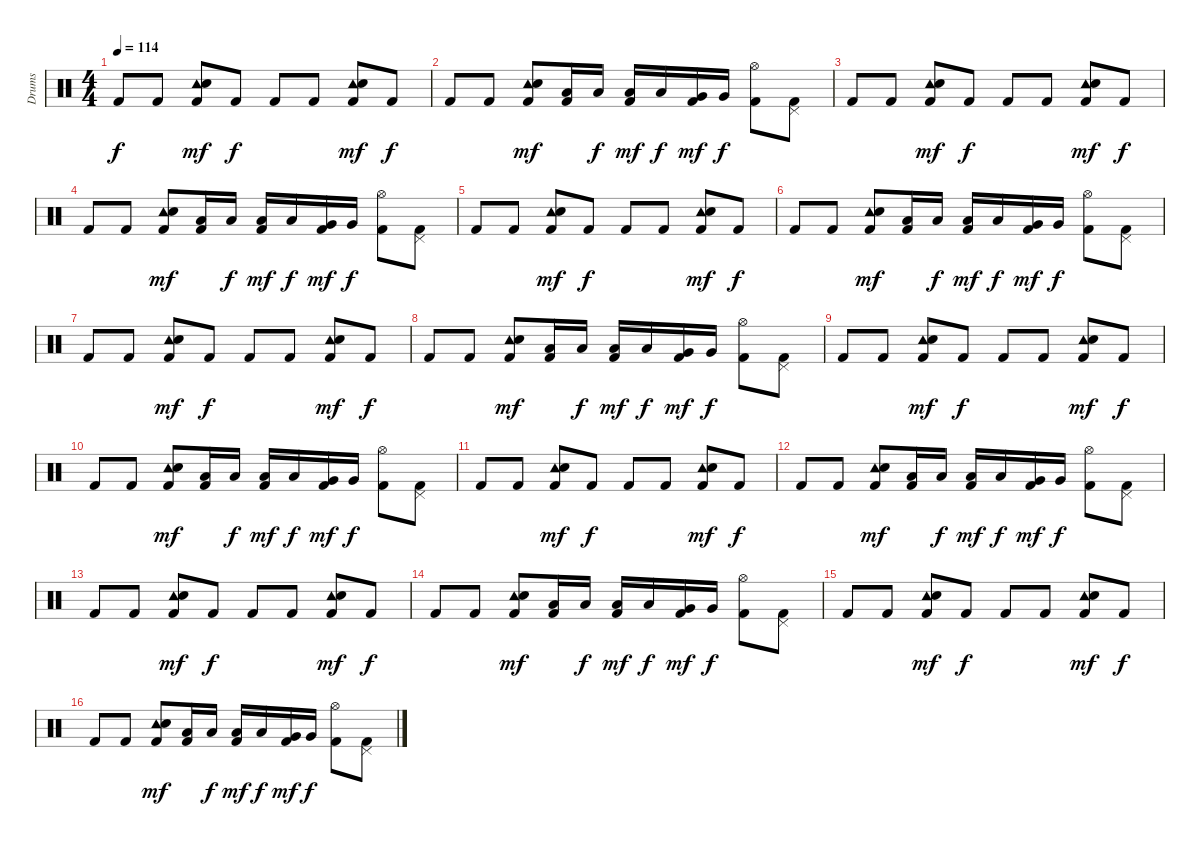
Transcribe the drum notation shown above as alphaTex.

\track ("Drums" "Drums") {instrument percussion}
\staff {score}
\articulation defaults
\ts (4 4)
\tempo 114
\clef neutral
\ks c "Kick (hit) 2".8{dy f} "Kick (hit) 2".8
("Tambourine (hit)" "Electric Snare (hit)" "Kick (hit) 2").8{dy mf} "Kick (hit) 2".8{dy f} "Kick (hit) 2".8 "Kick (hit) 2".8 ("Tambourine (hit)" "Electric Snare (hit)" "Kick (hit) 2").8{dy mf} "Kick (hit) 2".8{dy f} |
"Kick (hit) 2".8 "Kick (hit) 2".8 ("Tambourine (hit)" "Electric Snare (hit)" "Kick (hit) 2").8{dy mf} ("Low Tom (hit)" "Kick (hit) 2").16 "Low Tom (hit)".16{dy f} ("Low Tom (hit)" "Kick (hit) 2").16{dy mf} "Low Tom (hit)".16{dy f} ("Very Low Tom (hit)" "Kick (hit) 2").16{dy mf} "Very Low Tom (hit)".16{dy f} ("Hi-Hat (open)" "Kick (hit) 2").8 ("Pedal Hi-Hat (hit)" "Kick (hit) 2").8 |
"Kick (hit) 2".8 "Kick (hit) 2".8 ("Tambourine (hit)" "Electric Snare (hit)" "Kick (hit) 2").8{dy mf} "Kick (hit) 2".8{dy f} "Kick (hit) 2".8 "Kick (hit) 2".8 ("Tambourine (hit)" "Electric Snare (hit)" "Kick (hit) 2").8{dy mf} "Kick (hit) 2".8{dy f} |
"Kick (hit) 2".8 "Kick (hit) 2".8 ("Tambourine (hit)" "Electric Snare (hit)" "Kick (hit) 2").8{dy mf} ("Low Tom (hit)" "Kick (hit) 2").16 "Low Tom (hit)".16{dy f} ("Low Tom (hit)" "Kick (hit) 2").16{dy mf} "Low Tom (hit)".16{dy f} ("Very Low Tom (hit)" "Kick (hit) 2").16{dy mf} "Very Low Tom (hit)".16{dy f} ("Hi-Hat (open)" "Kick (hit) 2").8 ("Pedal Hi-Hat (hit)" "Kick (hit) 2").8 |
"Kick (hit) 2".8 "Kick (hit) 2".8 ("Tambourine (hit)" "Electric Snare (hit)" "Kick (hit) 2").8{dy mf} "Kick (hit) 2".8{dy f} "Kick (hit) 2".8 "Kick (hit) 2".8 ("Tambourine (hit)" "Electric Snare (hit)" "Kick (hit) 2").8{dy mf} "Kick (hit) 2".8{dy f} |
"Kick (hit) 2".8 "Kick (hit) 2".8 ("Tambourine (hit)" "Electric Snare (hit)" "Kick (hit) 2").8{dy mf} ("Low Tom (hit)" "Kick (hit) 2").16 "Low Tom (hit)".16{dy f} ("Low Tom (hit)" "Kick (hit) 2").16{dy mf} "Low Tom (hit)".16{dy f} ("Very Low Tom (hit)" "Kick (hit) 2").16{dy mf} "Very Low Tom (hit)".16{dy f} ("Hi-Hat (open)" "Kick (hit) 2").8 ("Pedal Hi-Hat (hit)" "Kick (hit) 2").8 |
"Kick (hit) 2".8 "Kick (hit) 2".8 ("Tambourine (hit)" "Electric Snare (hit)" "Kick (hit) 2").8{dy mf} "Kick (hit) 2".8{dy f} "Kick (hit) 2".8 "Kick (hit) 2".8 ("Tambourine (hit)" "Electric Snare (hit)" "Kick (hit) 2").8{dy mf} "Kick (hit) 2".8{dy f} |
"Kick (hit) 2".8 "Kick (hit) 2".8 ("Tambourine (hit)" "Electric Snare (hit)" "Kick (hit) 2").8{dy mf} ("Low Tom (hit)" "Kick (hit) 2").16 "Low Tom (hit)".16{dy f} ("Low Tom (hit)" "Kick (hit) 2").16{dy mf} "Low Tom (hit)".16{dy f} ("Very Low Tom (hit)" "Kick (hit) 2").16{dy mf} "Very Low Tom (hit)".16{dy f} ("Hi-Hat (open)" "Kick (hit) 2").8 ("Pedal Hi-Hat (hit)" "Kick (hit) 2").8 |
"Kick (hit) 2".8 "Kick (hit) 2".8 ("Tambourine (hit)" "Electric Snare (hit)" "Kick (hit) 2").8{dy mf} "Kick (hit) 2".8{dy f} "Kick (hit) 2".8 "Kick (hit) 2".8 ("Tambourine (hit)" "Electric Snare (hit)" "Kick (hit) 2").8{dy mf} "Kick (hit) 2".8{dy f} |
"Kick (hit) 2".8 "Kick (hit) 2".8 ("Tambourine (hit)" "Electric Snare (hit)" "Kick (hit) 2").8{dy mf} ("Low Tom (hit)" "Kick (hit) 2").16 "Low Tom (hit)".16{dy f} ("Low Tom (hit)" "Kick (hit) 2").16{dy mf} "Low Tom (hit)".16{dy f} ("Very Low Tom (hit)" "Kick (hit) 2").16{dy mf} "Very Low Tom (hit)".16{dy f} ("Hi-Hat (open)" "Kick (hit) 2").8 ("Pedal Hi-Hat (hit)" "Kick (hit) 2").8 |
"Kick (hit) 2".8 "Kick (hit) 2".8 ("Tambourine (hit)" "Electric Snare (hit)" "Kick (hit) 2").8{dy mf} "Kick (hit) 2".8{dy f} "Kick (hit) 2".8 "Kick (hit) 2".8 ("Tambourine (hit)" "Electric Snare (hit)" "Kick (hit) 2").8{dy mf} "Kick (hit) 2".8{dy f} |
"Kick (hit) 2".8 "Kick (hit) 2".8 ("Tambourine (hit)" "Electric Snare (hit)" "Kick (hit) 2").8{dy mf} ("Low Tom (hit)" "Kick (hit) 2").16 "Low Tom (hit)".16{dy f} ("Low Tom (hit)" "Kick (hit) 2").16{dy mf} "Low Tom (hit)".16{dy f} ("Very Low Tom (hit)" "Kick (hit) 2").16{dy mf} "Very Low Tom (hit)".16{dy f} ("Hi-Hat (open)" "Kick (hit) 2").8 ("Pedal Hi-Hat (hit)" "Kick (hit) 2").8 |
"Kick (hit) 2".8 "Kick (hit) 2".8 ("Tambourine (hit)" "Electric Snare (hit)" "Kick (hit) 2").8{dy mf} "Kick (hit) 2".8{dy f} "Kick (hit) 2".8 "Kick (hit) 2".8 ("Tambourine (hit)" "Electric Snare (hit)" "Kick (hit) 2").8{dy mf} "Kick (hit) 2".8{dy f} |
"Kick (hit) 2".8 "Kick (hit) 2".8 ("Tambourine (hit)" "Electric Snare (hit)" "Kick (hit) 2").8{dy mf} ("Low Tom (hit)" "Kick (hit) 2").16 "Low Tom (hit)".16{dy f} ("Low Tom (hit)" "Kick (hit) 2").16{dy mf} "Low Tom (hit)".16{dy f} ("Very Low Tom (hit)" "Kick (hit) 2").16{dy mf} "Very Low Tom (hit)".16{dy f} ("Hi-Hat (open)" "Kick (hit) 2").8 ("Pedal Hi-Hat (hit)" "Kick (hit) 2").8 |
"Kick (hit) 2".8 "Kick (hit) 2".8 ("Tambourine (hit)" "Electric Snare (hit)" "Kick (hit) 2").8{dy mf} "Kick (hit) 2".8{dy f} "Kick (hit) 2".8 "Kick (hit) 2".8 ("Tambourine (hit)" "Electric Snare (hit)" "Kick (hit) 2").8{dy mf} "Kick (hit) 2".8{dy f} |
"Kick (hit) 2".8 "Kick (hit) 2".8 ("Tambourine (hit)" "Electric Snare (hit)" "Kick (hit) 2").8{dy mf} ("Low Tom (hit)" "Kick (hit) 2").16 "Low Tom (hit)".16{dy f} ("Low Tom (hit)" "Kick (hit) 2").16{dy mf} "Low Tom (hit)".16{dy f} ("Very Low Tom (hit)" "Kick (hit) 2").16{dy mf} "Very Low Tom (hit)".16{dy f} ("Hi-Hat (open)" "Kick (hit) 2").8 ("Pedal Hi-Hat (hit)" "Kick (hit) 2").8
